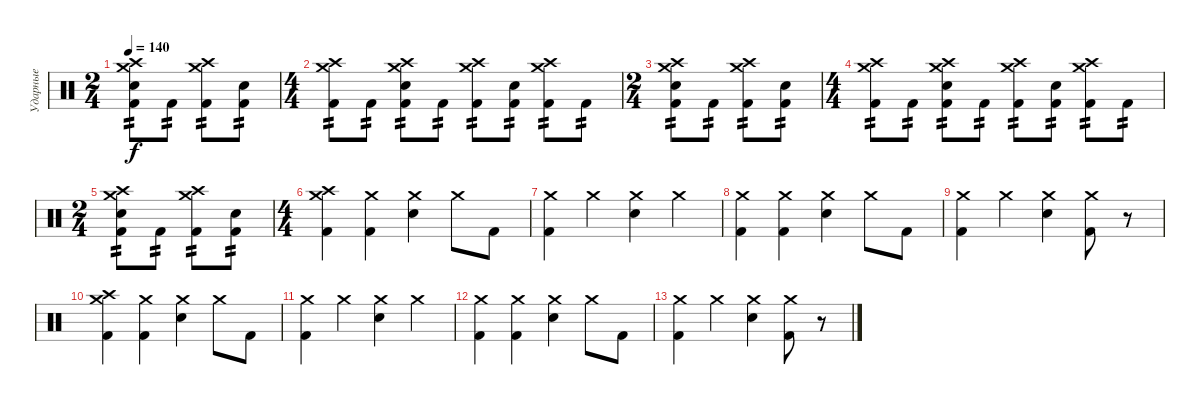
\track ("Ударные" "Ударные") {instrument percussion}
\staff {score}
\articulation defaults
\ts (2 4)
\tempo 140
\clef neutral
\ks c
("Crash high (hit)" "Crash medium (hit)" "Electric Snare (hit)" "Kick (hit) 2").8{tp 2 dy f} "Kick (hit) 2".8{tp 2} ("Crash high (hit)" "Crash medium (hit)" "Kick (hit) 2").8{tp 2} ("Electric Snare (hit)" "Kick (hit) 2").8{tp 2} |
\ts (4 4)
("Crash high (hit)" "Crash medium (hit)" "Kick (hit) 2").8{tp 2} "Kick (hit) 2".8{tp 2} ("Crash high (hit)" "Crash medium (hit)" "Electric Snare (hit)" "Kick (hit) 2").8{tp 2} "Kick (hit) 2".8{tp 2} ("Crash high (hit)" "Crash medium (hit)" "Kick (hit) 2").8{tp 2} ("Electric Snare (hit)" "Kick (hit) 2").8{tp 2} ("Crash high (hit)" "Crash medium (hit)" "Kick (hit) 2").8{tp 2} "Kick (hit) 2".8{tp 2} |
\ts (2 4)
("Crash high (hit)" "Crash medium (hit)" "Electric Snare (hit)" "Kick (hit) 2").8{tp 2} "Kick (hit) 2".8{tp 2} ("Crash high (hit)" "Crash medium (hit)" "Kick (hit) 2").8{tp 2} ("Electric Snare (hit)" "Kick (hit) 2").8{tp 2} |
\ts (4 4)
("Crash high (hit)" "Crash medium (hit)" "Kick (hit) 2").8{tp 2} "Kick (hit) 2".8{tp 2} ("Crash high (hit)" "Crash medium (hit)" "Electric Snare (hit)" "Kick (hit) 2").8{tp 2} "Kick (hit) 2".8{tp 2} ("Crash high (hit)" "Crash medium (hit)" "Kick (hit) 2").8{tp 2} ("Electric Snare (hit)" "Kick (hit) 2").8{tp 2} ("Crash high (hit)" "Crash medium (hit)" "Kick (hit) 2").8{tp 2} "Kick (hit) 2".8{tp 2} |
\ts (2 4)
("Crash high (hit)" "Crash medium (hit)" "Electric Snare (hit)" "Kick (hit) 2").8{tp 2} "Kick (hit) 2".8{tp 2} ("Crash high (hit)" "Crash medium (hit)" "Kick (hit) 2").8{tp 2} ("Electric Snare (hit)" "Kick (hit) 2").8{tp 2} |
\ts (4 4)
("Crash high (hit)" "Crash medium (hit)" "Kick (hit) 2").4 ("Crash medium (hit)" "Kick (hit) 2").4 ("Crash medium (hit)" "Electric Snare (hit)").4 "Crash medium (hit)".8 "Kick (hit) 2".8 |
("Crash medium (hit)" "Kick (hit) 2").4 "Crash medium (hit)".4 ("Crash medium (hit)" "Electric Snare (hit)").4 "Crash medium (hit)".4 |
("Crash medium (hit)" "Kick (hit) 2").4 ("Crash medium (hit)" "Kick (hit) 2").4 ("Crash medium (hit)" "Electric Snare (hit)").4 "Crash medium (hit)".8 "Kick (hit) 2".8 |
("Crash medium (hit)" "Kick (hit) 2").4 "Crash medium (hit)".4 ("Crash medium (hit)" "Electric Snare (hit)").4 ("Crash medium (hit)" "Kick (hit) 2").8 r.8 |
("Crash high (hit)" "Crash medium (hit)" "Kick (hit) 2").4 ("Crash medium (hit)" "Kick (hit) 2").4 ("Crash medium (hit)" "Electric Snare (hit)").4 "Crash medium (hit)".8 "Kick (hit) 2".8 |
("Crash medium (hit)" "Kick (hit) 2").4 "Crash medium (hit)".4 ("Crash medium (hit)" "Electric Snare (hit)").4 "Crash medium (hit)".4 |
("Crash medium (hit)" "Kick (hit) 2").4 ("Crash medium (hit)" "Kick (hit) 2").4 ("Crash medium (hit)" "Electric Snare (hit)").4 "Crash medium (hit)".8 "Kick (hit) 2".8 |
("Crash medium (hit)" "Kick (hit) 2").4 "Crash medium (hit)".4 ("Crash medium (hit)" "Electric Snare (hit)").4 ("Crash medium (hit)" "Kick (hit) 2").8 r.8
